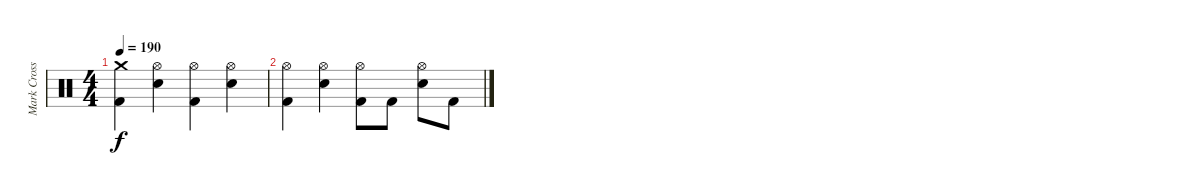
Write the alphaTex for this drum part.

\track ("Mark Cross" "Mark Cross") {instrument percussion}
\staff {score}
\articulation defaults
\ts (4 4)
\tempo 190
\clef neutral
\ks c
("Crash medium (hit)" "Kick (hit) 2").4{dy f} ("Hi-Hat (open)" "Electric Snare (hit)").4 ("Hi-Hat (open)" "Kick (hit) 2").4 ("Hi-Hat (open)" "Electric Snare (hit)").4 |
("Hi-Hat (open)" "Kick (hit) 2").4 ("Hi-Hat (open)" "Electric Snare (hit)").4 ("Hi-Hat (open)" "Kick (hit) 2").8 "Kick (hit) 2".8 ("Hi-Hat (open)" "Electric Snare (hit)").8 "Kick (hit) 2".8
